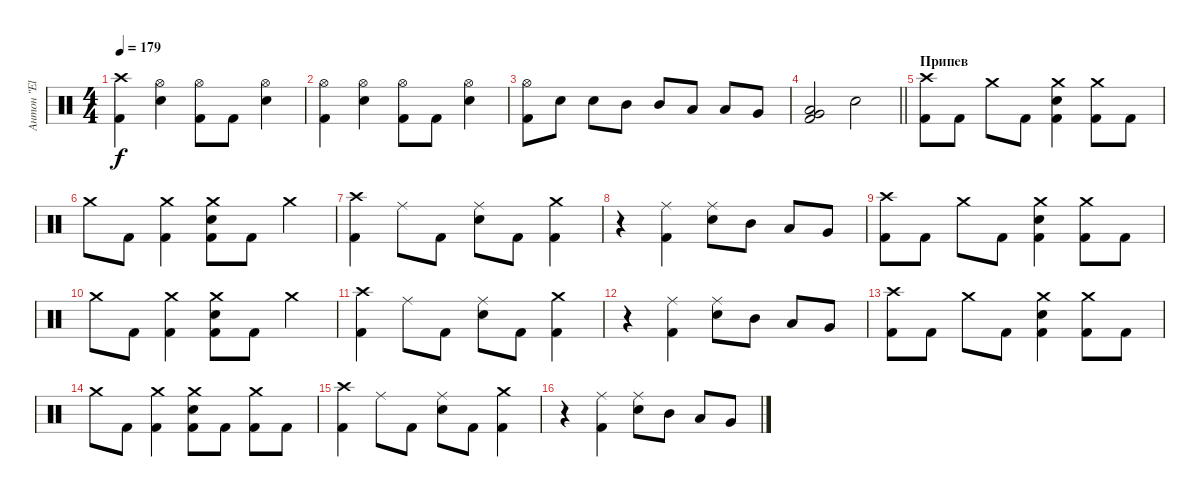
\track ("Антон \"El Bastardo\" Смольянин" "Антон \"El ") {instrument percussion}
\staff {score}
\articulation defaults
\ts (4 4)
\tempo 179
\clef neutral
\ks c
("Crash high (hit)" "Kick (hit) 2").4{dy f} ("Hi-Hat (open)" "Electric Snare (hit)").4 ("Hi-Hat (open)" "Kick (hit) 2").8 "Kick (hit) 2".8 ("Hi-Hat (open)" "Electric Snare (hit)").4 |
("Hi-Hat (open)" "Kick (hit) 2").4 ("Hi-Hat (open)" "Electric Snare (hit)").4 ("Hi-Hat (open)" "Kick (hit) 2").8 "Kick (hit) 2".8 ("Hi-Hat (open)" "Electric Snare (hit)").4 |
("Hi-Hat (open)" "Kick (hit) 2").8 "Electric Snare (hit)".8 "Electric Snare (hit)".8 "Mid Tom (hit)".8 "Mid Tom (hit)".8 "Low Tom (hit)".8 "Low Tom (hit)".8 "Very Low Tom (hit)".8 |
\barLineRight lightlight
("Very Low Tom (hit)" "Low Floor Tom (hit)" "Kick (hit) 2").2 "Electric Snare (hit)".2 |
\section ("" "Припев")
("Crash high (hit)" "Kick (hit) 2").8 "Kick (hit) 2".8 "Crash medium (hit)".8 "Kick (hit) 2".8 ("Crash medium (hit)" "Electric Snare (hit)" "Kick (hit) 2").4 ("Crash medium (hit)" "Kick (hit) 2").8 "Kick (hit) 2".8 |
"Crash medium (hit)".8 "Kick (hit) 2".8 ("Crash medium (hit)" "Kick (hit) 2").4 ("Crash medium (hit)" "Electric Snare (hit)" "Kick (hit) 2").8 "Kick (hit) 2".8 "Crash medium (hit)".4 |
("Crash high (hit)" "Kick (hit) 2").4 "Ride (middle)".8 "Kick (hit) 2".8 ("Ride (middle)" "Electric Snare (hit)").8 "Kick (hit) 2".8 ("Crash medium (hit)" "Kick (hit) 2").4 |
r.4 ("Ride (middle)" "Kick (hit) 2").4 ("Ride (middle)" "Electric Snare (hit)").8 "Mid Tom (hit)".8 "Low Tom (hit)".8 "Very Low Tom (hit)".8 |
("Crash high (hit)" "Kick (hit) 2").8 "Kick (hit) 2".8 "Crash medium (hit)".8 "Kick (hit) 2".8 ("Crash medium (hit)" "Electric Snare (hit)" "Kick (hit) 2").4 ("Crash medium (hit)" "Kick (hit) 2").8 "Kick (hit) 2".8 |
"Crash medium (hit)".8 "Kick (hit) 2".8 ("Crash medium (hit)" "Kick (hit) 2").4 ("Crash medium (hit)" "Electric Snare (hit)" "Kick (hit) 2").8 "Kick (hit) 2".8 "Crash medium (hit)".4 |
("Crash high (hit)" "Kick (hit) 2").4 "Ride (middle)".8 "Kick (hit) 2".8 ("Ride (middle)" "Electric Snare (hit)").8 "Kick (hit) 2".8 ("Crash medium (hit)" "Kick (hit) 2").4 |
r.4 ("Ride (middle)" "Kick (hit) 2").4 ("Ride (middle)" "Electric Snare (hit)").8 "Mid Tom (hit)".8 "Low Tom (hit)".8 "Very Low Tom (hit)".8 |
("Crash high (hit)" "Kick (hit) 2").8 "Kick (hit) 2".8 "Crash medium (hit)".8 "Kick (hit) 2".8 ("Crash medium (hit)" "Electric Snare (hit)" "Kick (hit) 2").4 ("Crash medium (hit)" "Kick (hit) 2").8 "Kick (hit) 2".8 |
"Crash medium (hit)".8 "Kick (hit) 2".8 ("Crash medium (hit)" "Kick (hit) 2").4 ("Crash medium (hit)" "Electric Snare (hit)" "Kick (hit) 2").8 "Kick (hit) 2".8 ("Crash medium (hit)" "Kick (hit) 2").8 "Kick (hit) 2".8 |
("Crash high (hit)" "Kick (hit) 2").4 "Ride (middle)".8 "Kick (hit) 2".8 ("Ride (middle)" "Electric Snare (hit)").8 "Kick (hit) 2".8 ("Crash medium (hit)" "Kick (hit) 2").4 |
r.4 ("Ride (middle)" "Kick (hit) 2").4 ("Ride (middle)" "Electric Snare (hit)").8 "Mid Tom (hit)".8 "Low Tom (hit)".8 "Very Low Tom (hit)".8
